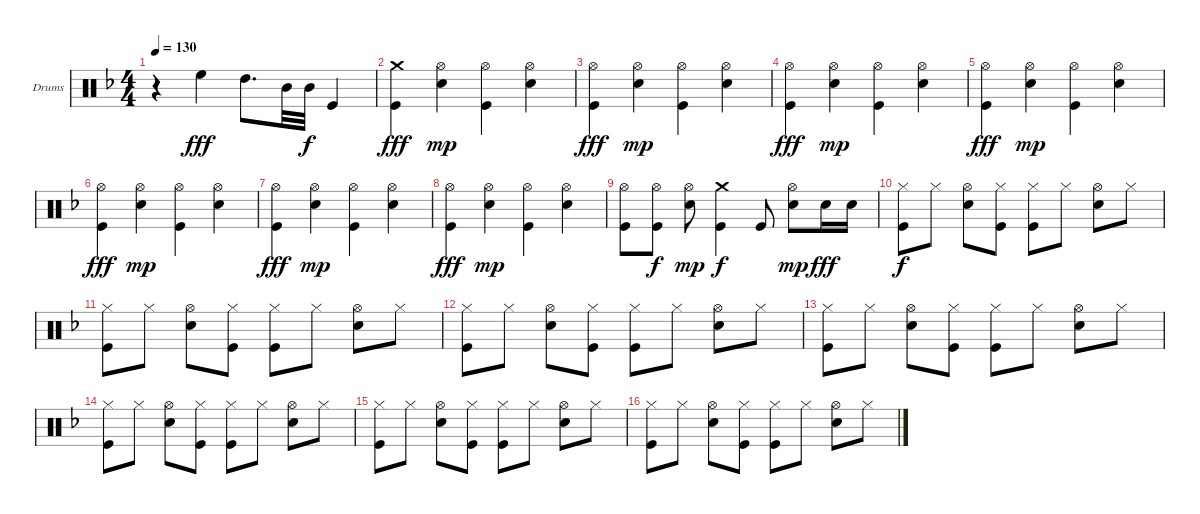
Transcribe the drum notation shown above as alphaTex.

\bracketExtendMode groupsimilarinstruments
\firstSystemTrackNameOrientation horizontal
\otherSystemsTrackNameOrientation horizontal
\track ("Александр Манякин" "Drums") {instrument percussion}
\staff {score}
\articulation defaults
\ts (4 4)
\tempo 130
\clef neutral
\ks f
r.4{dy fff} "High Floor Tom (hit)".4 "High Tom (hit)".8{d} "Mid Tom (hit)".32 "Mid Tom (hit)".32{dy f} "Kick (hit)".4 |
("Crash medium (hit)" "Kick (hit)").4{dy fff} ("Hi-Hat (open)" "Snare (hit) 2").4{dy mp} ("Hi-Hat (open)" "Kick (hit)").4 ("Hi-Hat (open)" "Snare (hit) 2").4 |
("Hi-Hat (open)" "Kick (hit)").4{dy fff} ("Hi-Hat (open)" "Snare (hit) 2").4{dy mp} ("Hi-Hat (open)" "Kick (hit)").4 ("Hi-Hat (open)" "Snare (hit) 2").4 |
("Hi-Hat (open)" "Kick (hit)").4{dy fff} ("Hi-Hat (open)" "Snare (hit) 2").4{dy mp} ("Hi-Hat (open)" "Kick (hit)").4 ("Hi-Hat (open)" "Snare (hit) 2").4 |
("Hi-Hat (open)" "Kick (hit)").4{dy fff} ("Hi-Hat (open)" "Snare (hit) 2").4{dy mp} ("Hi-Hat (open)" "Kick (hit)").4 ("Hi-Hat (open)" "Snare (hit) 2").4 |
("Hi-Hat (open)" "Kick (hit)").4{dy fff} ("Hi-Hat (open)" "Snare (hit) 2").4{dy mp} ("Hi-Hat (open)" "Kick (hit)").4 ("Hi-Hat (open)" "Snare (hit) 2").4 |
("Hi-Hat (open)" "Kick (hit)").4{dy fff} ("Hi-Hat (open)" "Snare (hit) 2").4{dy mp} ("Hi-Hat (open)" "Kick (hit)").4 ("Hi-Hat (open)" "Snare (hit) 2").4 |
("Hi-Hat (open)" "Kick (hit)").4{dy fff} ("Hi-Hat (open)" "Snare (hit) 2").4{dy mp} ("Hi-Hat (open)" "Kick (hit)").4 ("Hi-Hat (open)" "Snare (hit) 2").4 |
("Hi-Hat (open)" "Kick (hit)").8 ("Hi-Hat (open)" "Kick (hit)").8{dy f} ("Hi-Hat (open)" "Snare (hit) 2").8{dy mp} ("Crash medium (hit)" "Kick (hit)").4{dy f} "Kick (hit)".8 ("Hi-Hat (open)" "Snare (hit) 2").8{dy mp} "Snare (hit) 2".16{dy fff} "Snare (hit) 2".16 |
("Hi-Hat (closed)" "Kick (hit)").8{dy f} "Hi-Hat (closed)".8 ("Hi-Hat (open)" "Snare (hit) 2").8 ("Hi-Hat (closed)" "Kick (hit)").8 ("Hi-Hat (closed)" "Kick (hit)").8 "Hi-Hat (closed)".8 ("Hi-Hat (open)" "Snare (hit) 2").8 "Hi-Hat (closed)".8 |
("Hi-Hat (closed)" "Kick (hit)").8 "Hi-Hat (closed)".8 ("Hi-Hat (open)" "Snare (hit) 2").8 ("Hi-Hat (closed)" "Kick (hit)").8 ("Hi-Hat (closed)" "Kick (hit)").8 "Hi-Hat (closed)".8 ("Hi-Hat (open)" "Snare (hit) 2").8 "Hi-Hat (closed)".8 |
("Hi-Hat (closed)" "Kick (hit)").8 "Hi-Hat (closed)".8 ("Hi-Hat (open)" "Snare (hit) 2").8 ("Hi-Hat (closed)" "Kick (hit)").8 ("Hi-Hat (closed)" "Kick (hit)").8 "Hi-Hat (closed)".8 ("Hi-Hat (open)" "Snare (hit) 2").8 "Hi-Hat (closed)".8 |
("Hi-Hat (closed)" "Kick (hit)").8 "Hi-Hat (closed)".8 ("Hi-Hat (open)" "Snare (hit) 2").8 ("Hi-Hat (closed)" "Kick (hit)").8 ("Hi-Hat (closed)" "Kick (hit)").8 "Hi-Hat (closed)".8 ("Hi-Hat (open)" "Snare (hit) 2").8 "Hi-Hat (closed)".8 |
("Hi-Hat (closed)" "Kick (hit)").8 "Hi-Hat (closed)".8 ("Hi-Hat (open)" "Snare (hit) 2").8 ("Hi-Hat (closed)" "Kick (hit)").8 ("Hi-Hat (closed)" "Kick (hit)").8 "Hi-Hat (closed)".8 ("Hi-Hat (open)" "Snare (hit) 2").8 "Hi-Hat (closed)".8 |
("Hi-Hat (closed)" "Kick (hit)").8 "Hi-Hat (closed)".8 ("Hi-Hat (open)" "Snare (hit) 2").8 ("Hi-Hat (closed)" "Kick (hit)").8 ("Hi-Hat (closed)" "Kick (hit)").8 "Hi-Hat (closed)".8 ("Hi-Hat (open)" "Snare (hit) 2").8 "Hi-Hat (closed)".8 |
("Hi-Hat (closed)" "Kick (hit)").8 "Hi-Hat (closed)".8 ("Hi-Hat (open)" "Snare (hit) 2").8 ("Hi-Hat (closed)" "Kick (hit)").8 ("Hi-Hat (closed)" "Kick (hit)").8 "Hi-Hat (closed)".8 ("Hi-Hat (open)" "Snare (hit) 2").8 "Hi-Hat (closed)".8
